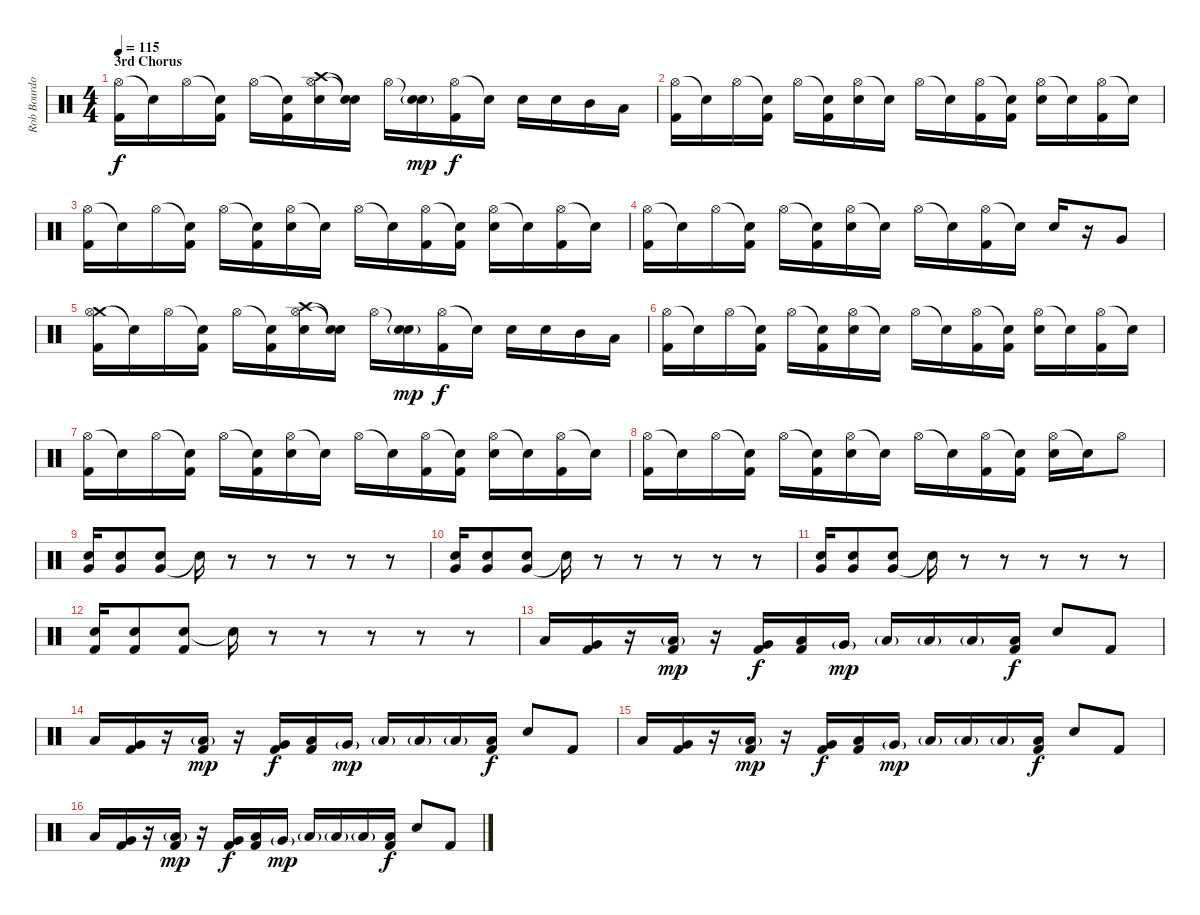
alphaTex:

\track ("Rob Bourdon (Drums)" "Rob Bourdo") {instrument percussion}
\staff {score}
\articulation defaults
\ts (4 4)
\section ("" "3rd Chorus")
\tempo 115
\clef neutral
\ks c
("Hi-Hat (open)" "Kick (hit) 2").16{dy f} "Snare (hit)"{t}.16 "Hi-Hat (open)".16 ("Snare (hit)"{t} "Kick (hit) 2").16 "Hi-Hat (open)".16 ("Snare (hit)"{t} "Kick (hit) 2").16 ("Crash high (hit)" "Hi-Hat (open)" "Electric Snare (hit)").16 ("Snare (hit)"{t} "Snare (hit)"{t}).16 "Hi-Hat (open)".16 ("Snare (hit)"{t} "Electric Snare (hit)"{g}).16{dy mp} ("Hi-Hat (open)" "Kick (hit) 2").16{dy f} "Snare (hit)"{t}.16 "Electric Snare (hit)".16 "Electric Snare (hit)".16 "Mid Tom (hit)".16 "Low Tom (hit)".16 |
("Hi-Hat (open)" "Kick (hit) 2").16 "Snare (hit)"{t}.16 "Hi-Hat (open)".16 ("Snare (hit)"{t} "Kick (hit) 2").16 "Hi-Hat (open)".16 ("Snare (hit)"{t} "Kick (hit) 2").16 ("Hi-Hat (open)" "Electric Snare (hit)").16 "Snare (hit)"{t}.16 "Hi-Hat (open)".16 "Snare (hit)"{t}.16 ("Hi-Hat (open)" "Kick (hit) 2").16 ("Snare (hit)"{t} "Kick (hit) 2").16 ("Hi-Hat (open)" "Electric Snare (hit)").16 "Snare (hit)"{t}.16 ("Hi-Hat (open)" "Kick (hit) 2").16 "Snare (hit)"{t}.16 |
("Hi-Hat (open)" "Kick (hit) 2").16 "Snare (hit)"{t}.16 "Hi-Hat (open)".16 ("Snare (hit)"{t} "Kick (hit) 2").16 "Hi-Hat (open)".16 ("Snare (hit)"{t} "Kick (hit) 2").16 ("Hi-Hat (open)" "Electric Snare (hit)").16 "Snare (hit)"{t}.16 "Hi-Hat (open)".16 "Snare (hit)"{t}.16 ("Hi-Hat (open)" "Kick (hit) 2").16 ("Snare (hit)"{t} "Kick (hit) 2").16 ("Hi-Hat (open)" "Electric Snare (hit)").16 "Snare (hit)"{t}.16 ("Hi-Hat (open)" "Kick (hit) 2").16 "Snare (hit)"{t}.16 |
("Hi-Hat (open)" "Kick (hit) 2").16 "Snare (hit)"{t}.16 "Hi-Hat (open)".16 ("Snare (hit)"{t} "Kick (hit) 2").16 "Hi-Hat (open)".16 ("Snare (hit)"{t} "Kick (hit) 2").16 ("Hi-Hat (open)" "Electric Snare (hit)").16 "Snare (hit)"{t}.16 "Hi-Hat (open)".16 "Snare (hit)"{t}.16 ("Hi-Hat (open)" "Kick (hit) 2").16 "Snare (hit)"{t}.16 "Electric Snare (hit)".16 r.16 "Very Low Tom (hit)".8 |
("Crash medium (hit)" "Hi-Hat (open)" "Kick (hit) 2").16 "Snare (hit)"{t}.16 "Hi-Hat (open)".16 ("Snare (hit)"{t} "Kick (hit) 2").16 "Hi-Hat (open)".16 ("Snare (hit)"{t} "Kick (hit) 2").16 ("Crash high (hit)" "Hi-Hat (open)" "Electric Snare (hit)").16 ("Snare (hit)"{t} "Snare (hit)"{t}).16 "Hi-Hat (open)".16 ("Snare (hit)"{t} "Electric Snare (hit)"{g}).16{dy mp} ("Hi-Hat (open)" "Kick (hit) 2").16{dy f} "Snare (hit)"{t}.16 "Electric Snare (hit)".16 "Electric Snare (hit)".16 "Mid Tom (hit)".16 "Low Tom (hit)".16 |
("Hi-Hat (open)" "Kick (hit) 2").16 "Snare (hit)"{t}.16 "Hi-Hat (open)".16 ("Snare (hit)"{t} "Kick (hit) 2").16 "Hi-Hat (open)".16 ("Snare (hit)"{t} "Kick (hit) 2").16 ("Hi-Hat (open)" "Electric Snare (hit)").16 "Snare (hit)"{t}.16 "Hi-Hat (open)".16 "Snare (hit)"{t}.16 ("Hi-Hat (open)" "Kick (hit) 2").16 ("Snare (hit)"{t} "Kick (hit) 2").16 ("Hi-Hat (open)" "Electric Snare (hit)").16 "Snare (hit)"{t}.16 ("Hi-Hat (open)" "Kick (hit) 2").16 "Snare (hit)"{t}.16 |
("Hi-Hat (open)" "Kick (hit) 2").16 "Snare (hit)"{t}.16 "Hi-Hat (open)".16 ("Snare (hit)"{t} "Kick (hit) 2").16 "Hi-Hat (open)".16 ("Snare (hit)"{t} "Kick (hit) 2").16 ("Hi-Hat (open)" "Electric Snare (hit)").16 "Snare (hit)"{t}.16 "Hi-Hat (open)".16 "Snare (hit)"{t}.16 ("Hi-Hat (open)" "Kick (hit) 2").16 ("Snare (hit)"{t} "Kick (hit) 2").16 ("Hi-Hat (open)" "Electric Snare (hit)").16 "Snare (hit)"{t}.16 ("Hi-Hat (open)" "Kick (hit) 2").16 "Snare (hit)"{t}.16 |
("Hi-Hat (open)" "Kick (hit) 2").16 "Snare (hit)"{t}.16 "Hi-Hat (open)".16 ("Snare (hit)"{t} "Kick (hit) 2").16 "Hi-Hat (open)".16 ("Snare (hit)"{t} "Kick (hit) 2").16 ("Hi-Hat (open)" "Electric Snare (hit)").16 "Snare (hit)"{t}.16 "Hi-Hat (open)".16 "Snare (hit)"{t}.16 ("Hi-Hat (open)" "Kick (hit) 2").16 ("Snare (hit)"{t} "Kick (hit) 2").16 ("Hi-Hat (open)" "Electric Snare (hit)").16 "Snare (hit)"{t}.16 "Hi-Hat (open)".8 |
("Very Low Tom (hit)" "Electric Snare (hit)").16 ("Very Low Tom (hit)" "Electric Snare (hit)").8 ("Very Low Tom (hit)" "Electric Snare (hit)").8 "Snare (hit)"{t}.16 r.8 r.8 r.8 r.8 r.8 |
("Very Low Tom (hit)" "Electric Snare (hit)").16 ("Very Low Tom (hit)" "Electric Snare (hit)").8 ("Very Low Tom (hit)" "Electric Snare (hit)").8 "Snare (hit)"{t}.16 r.8 r.8 r.8 r.8 r.8 |
("Very Low Tom (hit)" "Electric Snare (hit)").16 ("Very Low Tom (hit)" "Electric Snare (hit)").8 ("Very Low Tom (hit)" "Electric Snare (hit)").8 "Snare (hit)"{t}.16 r.8 r.8 r.8 r.8 r.8 |
("Electric Snare (hit)" "Kick (hit) 2").16 ("Electric Snare (hit)" "Kick (hit) 2").8 ("Electric Snare (hit)" "Kick (hit) 2").8 "Snare (hit)"{t}.16 r.8 r.8 r.8 r.8 r.8 |
"Low Tom (hit)".16 ("Very Low Tom (hit)" "Kick (hit) 2").16 r.16 ("Low Tom (hit)"{g} "Kick (hit) 2").16{dy mp} r.16 ("Very Low Tom (hit)" "Kick (hit) 2").16{dy f} ("Low Tom (hit)" "Kick (hit) 2").16 "Very Low Tom (hit)"{g}.16{dy mp} "Low Tom (hit)"{g}.16 "Low Tom (hit)"{g}.16 "Low Tom (hit)"{g}.16 ("Low Tom (hit)" "Kick (hit) 2").16{dy f} "Electric Snare (hit)".8 "Kick (hit) 2".8 |
"Low Tom (hit)".16 ("Very Low Tom (hit)" "Kick (hit) 2").16 r.16 ("Low Tom (hit)"{g} "Kick (hit) 2").16{dy mp} r.16 ("Very Low Tom (hit)" "Kick (hit) 2").16{dy f} ("Low Tom (hit)" "Kick (hit) 2").16 "Very Low Tom (hit)"{g}.16{dy mp} "Low Tom (hit)"{g}.16 "Low Tom (hit)"{g}.16 "Low Tom (hit)"{g}.16 ("Low Tom (hit)" "Kick (hit) 2").16{dy f} "Electric Snare (hit)".8 "Kick (hit) 2".8 |
"Low Tom (hit)".16 ("Very Low Tom (hit)" "Kick (hit) 2").16 r.16 ("Low Tom (hit)"{g} "Kick (hit) 2").16{dy mp} r.16 ("Very Low Tom (hit)" "Kick (hit) 2").16{dy f} ("Low Tom (hit)" "Kick (hit) 2").16 "Very Low Tom (hit)"{g}.16{dy mp} "Low Tom (hit)"{g}.16 "Low Tom (hit)"{g}.16 "Low Tom (hit)"{g}.16 ("Low Tom (hit)" "Kick (hit) 2").16{dy f} "Electric Snare (hit)".8 "Kick (hit) 2".8 |
"Low Tom (hit)".16 ("Very Low Tom (hit)" "Kick (hit) 2").16 r.16 ("Low Tom (hit)"{g} "Kick (hit) 2").16{dy mp} r.16 ("Very Low Tom (hit)" "Kick (hit) 2").16{dy f} ("Low Tom (hit)" "Kick (hit) 2").16 "Very Low Tom (hit)"{g}.16{dy mp} "Low Tom (hit)"{g}.16 "Low Tom (hit)"{g}.16 "Low Tom (hit)"{g}.16 ("Low Tom (hit)" "Kick (hit) 2").16{dy f} "Electric Snare (hit)".8 "Kick (hit) 2".8
